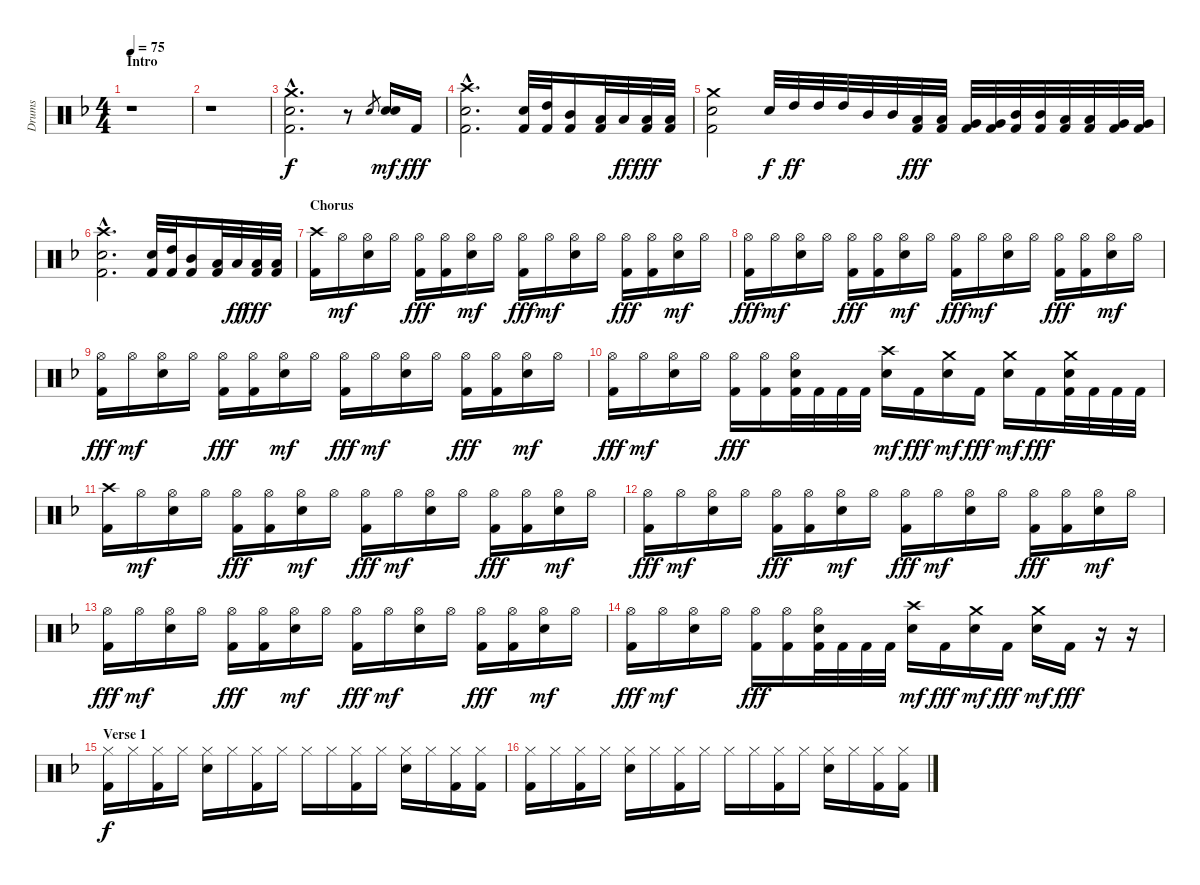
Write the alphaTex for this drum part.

\track ("Drums" "Drums") {instrument percussion}
\staff {score}
\articulation defaults
\ts (4 4)
\section ("" "Intro")
\tempo 75
\clef neutral
\ks dminor
r.1{dy f} |
r.1 |
("Crash medium (hit)"{hac} "Snare (hit) 2"{hac} "Kick (hit) 2"{hac}).2{d} r.8 "Snare (hit) 2".8{gr} ("Snare (hit) 2" "Snare (hit) 2").16{dy mf} "Kick (hit) 2".16{dy fff} |
("Crash high (hit)"{hac} "Snare (hit) 2"{hac} "Kick (hit) 2"{hac}).2{d} ("Snare (hit) 2" "Kick (hit) 2").32 ("High Tom (hit)" "Kick (hit) 2").32 ("Mid Tom (hit)" "Kick (hit) 2").16 ("Low Tom (hit)" "Kick (hit) 2").32 "Low Tom (hit)".32{dy ff} ("Low Tom (hit)" "Kick (hit) 2").32{dy fff} ("Low Tom (hit)" "Kick (hit) 2").32 |
("Crash medium (hit)" "Snare (hit) 2" "Kick (hit) 2").2 "Snare (hit) 2".32{dy f} "High Tom (hit)".32{dy ff} "High Tom (hit)".32 "High Tom (hit)".32 "Mid Tom (hit)".32 "Mid Tom (hit)".32 ("Low Tom (hit)" "Kick (hit) 2").32{dy fff} ("Low Tom (hit)" "Kick (hit) 2").32 ("Very Low Tom (hit)" "Kick (hit) 2").32 ("Very Low Tom (hit)" "Kick (hit) 2").32 ("Mid Tom (hit)" "Kick (hit) 2").32 ("Mid Tom (hit)" "Kick (hit) 2").32 ("Low Tom (hit)" "Kick (hit) 2").32 ("Low Tom (hit)" "Kick (hit) 2").32 ("Very Low Tom (hit)" "Kick (hit) 2").32 ("Very Low Tom (hit)" "Kick (hit) 2").32 |
("Crash high (hit)"{hac} "Snare (hit) 2"{hac} "Kick (hit) 2"{hac}).2{d} ("Snare (hit) 2" "Kick (hit) 2").32 ("High Tom (hit)" "Kick (hit) 2").32 ("Mid Tom (hit)" "Kick (hit) 2").16 ("Low Tom (hit)" "Kick (hit) 2").32 "Low Tom (hit)".32{dy ff} ("Low Tom (hit)" "Kick (hit) 2").32{dy fff} ("Low Tom (hit)" "Kick (hit) 2").32 |
\section ("" "Chorus")
("Crash high (hit)" "Kick (hit) 2").16 "Hi-Hat (open)".16{dy mf} ("Hi-Hat (open)" "Snare (hit) 2").16 "Hi-Hat (open)".16 ("Hi-Hat (open)" "Kick (hit) 2").16{dy fff} ("Hi-Hat (open)" "Kick (hit) 2").16 ("Hi-Hat (open)" "Snare (hit) 2").16{dy mf} "Hi-Hat (open)".16 ("Hi-Hat (open)" "Kick (hit) 2").16{dy fff} "Hi-Hat (open)".16{dy mf} ("Hi-Hat (open)" "Snare (hit) 2").16 "Hi-Hat (open)".16 ("Hi-Hat (open)" "Kick (hit) 2").16{dy fff} ("Hi-Hat (open)" "Kick (hit) 2").16 ("Hi-Hat (open)" "Snare (hit) 2").16{dy mf} "Hi-Hat (open)".16 |
("Hi-Hat (open)" "Kick (hit) 2").16{dy fff} "Hi-Hat (open)".16{dy mf} ("Hi-Hat (open)" "Snare (hit) 2").16 "Hi-Hat (open)".16 ("Hi-Hat (open)" "Kick (hit) 2").16{dy fff} ("Hi-Hat (open)" "Kick (hit) 2").16 ("Hi-Hat (open)" "Snare (hit) 2").16{dy mf} "Hi-Hat (open)".16 ("Hi-Hat (open)" "Kick (hit) 2").16{dy fff} "Hi-Hat (open)".16{dy mf} ("Hi-Hat (open)" "Snare (hit) 2").16 "Hi-Hat (open)".16 ("Hi-Hat (open)" "Kick (hit) 2").16{dy fff} ("Hi-Hat (open)" "Kick (hit) 2").16 ("Hi-Hat (open)" "Snare (hit) 2").16{dy mf} "Hi-Hat (open)".16 |
("Hi-Hat (open)" "Kick (hit) 2").16{dy fff} "Hi-Hat (open)".16{dy mf} ("Hi-Hat (open)" "Snare (hit) 2").16 "Hi-Hat (open)".16 ("Hi-Hat (open)" "Kick (hit) 2").16{dy fff} ("Hi-Hat (open)" "Kick (hit) 2").16 ("Hi-Hat (open)" "Snare (hit) 2").16{dy mf} "Hi-Hat (open)".16 ("Hi-Hat (open)" "Kick (hit) 2").16{dy fff} "Hi-Hat (open)".16{dy mf} ("Hi-Hat (open)" "Snare (hit) 2").16 "Hi-Hat (open)".16 ("Hi-Hat (open)" "Kick (hit) 2").16{dy fff} ("Hi-Hat (open)" "Kick (hit) 2").16 ("Hi-Hat (open)" "Snare (hit) 2").16{dy mf} "Hi-Hat (open)".16 |
("Hi-Hat (open)" "Kick (hit) 2").16{dy fff} "Hi-Hat (open)".16{dy mf} ("Hi-Hat (open)" "Snare (hit) 2").16 "Hi-Hat (open)".16 ("Hi-Hat (open)" "Kick (hit) 2").16{dy fff} ("Hi-Hat (open)" "Kick (hit) 2").16 ("Hi-Hat (open)" "Snare (hit) 2" "Kick (hit) 2").32 "Kick (hit) 2".32 "Kick (hit) 2".32 "Kick (hit) 2".32 ("Crash high (hit)" "Snare (hit) 2").16{dy mf} "Kick (hit) 2".16{dy fff} ("Crash medium (hit)" "Snare (hit) 2").16{dy mf} "Kick (hit) 2".16{dy fff} ("Crash medium (hit)" "Snare (hit) 2").16{dy mf} "Kick (hit) 2".16{dy fff} ("Crash medium (hit)" "Snare (hit) 2" "Kick (hit) 2").32 "Kick (hit) 2".32 "Kick (hit) 2".32 "Kick (hit) 2".32 |
("Crash high (hit)" "Kick (hit) 2").16 "Hi-Hat (open)".16{dy mf} ("Hi-Hat (open)" "Snare (hit) 2").16 "Hi-Hat (open)".16 ("Hi-Hat (open)" "Kick (hit) 2").16{dy fff} ("Hi-Hat (open)" "Kick (hit) 2").16 ("Hi-Hat (open)" "Snare (hit) 2").16{dy mf} "Hi-Hat (open)".16 ("Hi-Hat (open)" "Kick (hit) 2").16{dy fff} "Hi-Hat (open)".16{dy mf} ("Hi-Hat (open)" "Snare (hit) 2").16 "Hi-Hat (open)".16 ("Hi-Hat (open)" "Kick (hit) 2").16{dy fff} ("Hi-Hat (open)" "Kick (hit) 2").16 ("Hi-Hat (open)" "Snare (hit) 2").16{dy mf} "Hi-Hat (open)".16 |
("Hi-Hat (open)" "Kick (hit) 2").16{dy fff} "Hi-Hat (open)".16{dy mf} ("Hi-Hat (open)" "Snare (hit) 2").16 "Hi-Hat (open)".16 ("Hi-Hat (open)" "Kick (hit) 2").16{dy fff} ("Hi-Hat (open)" "Kick (hit) 2").16 ("Hi-Hat (open)" "Snare (hit) 2").16{dy mf} "Hi-Hat (open)".16 ("Hi-Hat (open)" "Kick (hit) 2").16{dy fff} "Hi-Hat (open)".16{dy mf} ("Hi-Hat (open)" "Snare (hit) 2").16 "Hi-Hat (open)".16 ("Hi-Hat (open)" "Kick (hit) 2").16{dy fff} ("Hi-Hat (open)" "Kick (hit) 2").16 ("Hi-Hat (open)" "Snare (hit) 2").16{dy mf} "Hi-Hat (open)".16 |
("Hi-Hat (open)" "Kick (hit) 2").16{dy fff} "Hi-Hat (open)".16{dy mf} ("Hi-Hat (open)" "Snare (hit) 2").16 "Hi-Hat (open)".16 ("Hi-Hat (open)" "Kick (hit) 2").16{dy fff} ("Hi-Hat (open)" "Kick (hit) 2").16 ("Hi-Hat (open)" "Snare (hit) 2").16{dy mf} "Hi-Hat (open)".16 ("Hi-Hat (open)" "Kick (hit) 2").16{dy fff} "Hi-Hat (open)".16{dy mf} ("Hi-Hat (open)" "Snare (hit) 2").16 "Hi-Hat (open)".16 ("Hi-Hat (open)" "Kick (hit) 2").16{dy fff} ("Hi-Hat (open)" "Kick (hit) 2").16 ("Hi-Hat (open)" "Snare (hit) 2").16{dy mf} "Hi-Hat (open)".16 |
("Hi-Hat (open)" "Kick (hit) 2").16{dy fff} "Hi-Hat (open)".16{dy mf} ("Hi-Hat (open)" "Snare (hit) 2").16 "Hi-Hat (open)".16 ("Hi-Hat (open)" "Kick (hit) 2").16{dy fff} ("Hi-Hat (open)" "Kick (hit) 2").16 ("Hi-Hat (open)" "Snare (hit) 2" "Kick (hit) 2").32 "Kick (hit) 2".32 "Kick (hit) 2".32 "Kick (hit) 2".32 ("Crash high (hit)" "Snare (hit) 2").16{dy mf} "Kick (hit) 2".16{dy fff} ("Crash medium (hit)" "Snare (hit) 2").16{dy mf} "Kick (hit) 2".16{dy fff} ("Crash medium (hit)" "Snare (hit) 2").16{dy mf} "Kick (hit) 2".16{dy fff} r.16 r.16 |
\section ("" "Verse 1")
("Hi-Hat (closed)" "Kick (hit) 2").16{dy f} "Hi-Hat (closed)".16 ("Hi-Hat (closed)" "Kick (hit) 2").16 "Hi-Hat (closed)".16 ("Hi-Hat (closed)" "Snare (hit) 2").16 "Hi-Hat (closed)".16 ("Hi-Hat (closed)" "Kick (hit) 2").16 "Hi-Hat (closed)".16 "Hi-Hat (closed)".16 "Hi-Hat (closed)".16 ("Hi-Hat (closed)" "Kick (hit) 2").16 "Hi-Hat (closed)".16 ("Hi-Hat (closed)" "Snare (hit) 2").16 "Hi-Hat (closed)".16 ("Hi-Hat (closed)" "Kick (hit) 2").16 ("Hi-Hat (closed)" "Kick (hit) 2").16 |
("Hi-Hat (closed)" "Kick (hit) 2").16 "Hi-Hat (closed)".16 ("Hi-Hat (closed)" "Kick (hit) 2").16 "Hi-Hat (closed)".16 ("Hi-Hat (closed)" "Snare (hit) 2").16 "Hi-Hat (closed)".16 ("Hi-Hat (closed)" "Kick (hit) 2").16 "Hi-Hat (closed)".16 "Hi-Hat (closed)".16 "Hi-Hat (closed)".16 ("Hi-Hat (closed)" "Kick (hit) 2").16 "Hi-Hat (closed)".16 ("Hi-Hat (closed)" "Snare (hit) 2").16 "Hi-Hat (closed)".16 ("Hi-Hat (closed)" "Kick (hit) 2").16 ("Hi-Hat (closed)" "Kick (hit) 2").16
